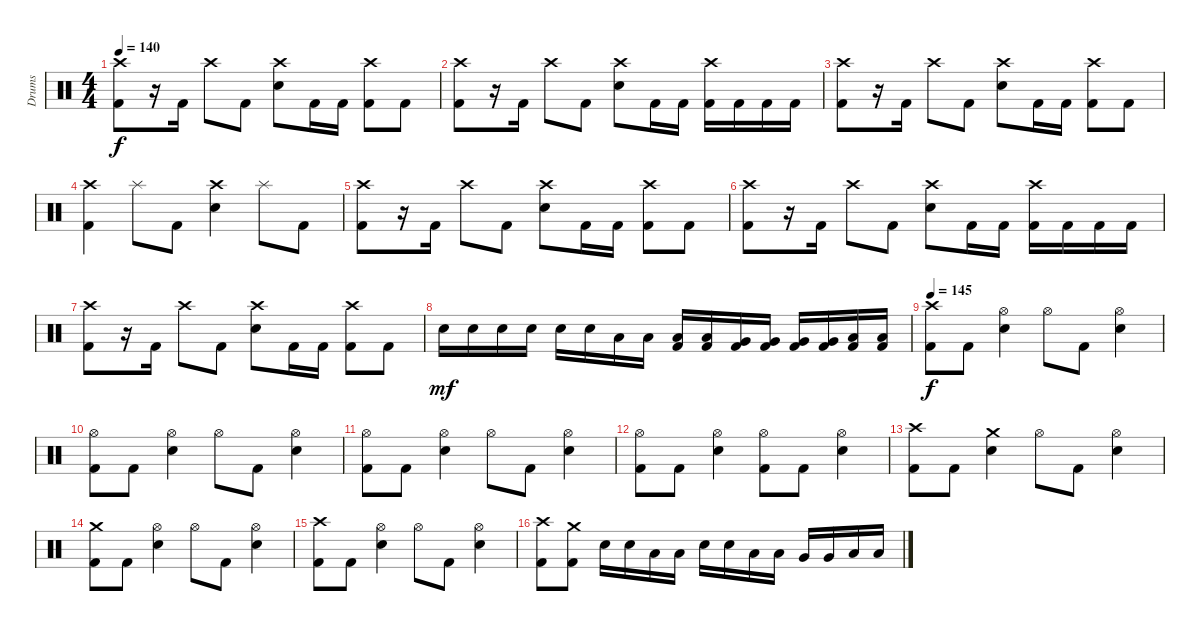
\track ("Drums" "Drums") {instrument percussion}
\staff {score}
\articulation defaults
\ts (4 4)
\tempo 140
\clef neutral
\ks c
("Crash high (hit)" "Kick (hit) 2").8{dy f} r.16 "Kick (hit) 2".16 "Crash high (hit)".8 "Kick (hit) 2".8 ("Crash high (hit)" "Electric Snare (hit)").8 "Kick (hit) 2".16 "Kick (hit) 2".16 ("Crash high (hit)" "Kick (hit) 2").8 "Kick (hit) 2".8 |
("Crash high (hit)" "Kick (hit) 2").8 r.16 "Kick (hit) 2".16 "Crash high (hit)".8 "Kick (hit) 2".8 ("Crash high (hit)" "Electric Snare (hit)").8 "Kick (hit) 2".16 "Kick (hit) 2".16 ("Crash high (hit)" "Kick (hit) 2").16 "Kick (hit) 2".16 "Kick (hit) 2".16 "Kick (hit) 2".16 |
("Crash high (hit)" "Kick (hit) 2").8 r.16 "Kick (hit) 2".16 "Crash high (hit)".8 "Kick (hit) 2".8 ("Crash high (hit)" "Electric Snare (hit)").8 "Kick (hit) 2".16 "Kick (hit) 2".16 ("Crash high (hit)" "Kick (hit) 2").8 "Kick (hit) 2".8 |
("Crash high (hit)" "Kick (hit) 2").4 "Splash (hit)".8 "Kick (hit) 2".8 ("Crash high (hit)" "Electric Snare (hit)").4 "Splash (hit)".8 "Kick (hit) 2".8 |
("Crash high (hit)" "Kick (hit) 2").8 r.16 "Kick (hit) 2".16 "Crash high (hit)".8 "Kick (hit) 2".8 ("Crash high (hit)" "Electric Snare (hit)").8 "Kick (hit) 2".16 "Kick (hit) 2".16 ("Crash high (hit)" "Kick (hit) 2").8 "Kick (hit) 2".8 |
("Crash high (hit)" "Kick (hit) 2").8 r.16 "Kick (hit) 2".16 "Crash high (hit)".8 "Kick (hit) 2".8 ("Crash high (hit)" "Electric Snare (hit)").8 "Kick (hit) 2".16 "Kick (hit) 2".16 ("Crash high (hit)" "Kick (hit) 2").16 "Kick (hit) 2".16 "Kick (hit) 2".16 "Kick (hit) 2".16 |
("Crash high (hit)" "Kick (hit) 2").8 r.16 "Kick (hit) 2".16 "Crash high (hit)".8 "Kick (hit) 2".8 ("Crash high (hit)" "Electric Snare (hit)").8 "Kick (hit) 2".16 "Kick (hit) 2".16 ("Crash high (hit)" "Kick (hit) 2").8 "Kick (hit) 2".8 |
"Electric Snare (hit)".16{dy mf} "Electric Snare (hit)".16 "Electric Snare (hit)".16 "Electric Snare (hit)".16 "Electric Snare (hit)".16 "Electric Snare (hit)".16 "Low Tom (hit)".16 "Low Tom (hit)".16 ("Low Tom (hit)" "Kick (hit) 2").16 ("Low Tom (hit)" "Kick (hit) 2").16 ("Very Low Tom (hit)" "Kick (hit) 2").16 ("Very Low Tom (hit)" "Kick (hit) 2").16 ("Very Low Tom (hit)" "Kick (hit) 2").16 ("Very Low Tom (hit)" "Kick (hit) 2").16 ("Low Floor Tom (hit)" "Kick (hit) 2").16 ("Low Floor Tom (hit)" "Kick (hit) 2").16 |
\tempo 145
("Crash high (hit)" "Kick (hit) 2").8{dy f} "Kick (hit) 2".8 ("Hi-Hat (open)" "Electric Snare (hit)").4 "Hi-Hat (open)".8 "Kick (hit) 2".8 ("Hi-Hat (open)" "Electric Snare (hit)").4 |
("Hi-Hat (open)" "Kick (hit) 2").8 "Kick (hit) 2".8 ("Hi-Hat (open)" "Electric Snare (hit)").4 "Hi-Hat (open)".8 "Kick (hit) 2".8 ("Hi-Hat (open)" "Electric Snare (hit)").4 |
("Hi-Hat (open)" "Kick (hit) 2").8 "Kick (hit) 2".8 ("Hi-Hat (open)" "Electric Snare (hit)").4 "Hi-Hat (open)".8 "Kick (hit) 2".8 ("Hi-Hat (open)" "Electric Snare (hit)").4 |
("Hi-Hat (open)" "Kick (hit) 2").8 "Kick (hit) 2".8 ("Hi-Hat (open)" "Electric Snare (hit)").4 ("Hi-Hat (open)" "Kick (hit) 2").8 "Kick (hit) 2".8 ("Hi-Hat (open)" "Electric Snare (hit)").4 |
("Crash high (hit)" "Kick (hit) 2").8 "Kick (hit) 2".8 ("Crash medium (hit)" "Electric Snare (hit)").4 "Hi-Hat (open)".8 "Kick (hit) 2".8 ("Hi-Hat (open)" "Electric Snare (hit)").4 |
("Crash medium (hit)" "Kick (hit) 2").8 "Kick (hit) 2".8 ("Hi-Hat (open)" "Electric Snare (hit)").4 "Hi-Hat (open)".8 "Kick (hit) 2".8 ("Hi-Hat (open)" "Electric Snare (hit)").4 |
("Crash high (hit)" "Kick (hit) 2").8 "Kick (hit) 2".8 ("Hi-Hat (open)" "Electric Snare (hit)").4 "Hi-Hat (open)".8 "Kick (hit) 2".8 ("Hi-Hat (open)" "Electric Snare (hit)").4 |
("Crash high (hit)" "Kick (hit) 2").8 ("Crash medium (hit)" "Kick (hit) 2").8 "Electric Snare (hit)".16 "Electric Snare (hit)".16 "Low Tom (hit)".16 "Low Tom (hit)".16 "Electric Snare (hit)".16 "Electric Snare (hit)".16 "Low Tom (hit)".16 "Low Tom (hit)".16 "Very Low Tom (hit)".16 "Very Low Tom (hit)".16 "Low Floor Tom (hit)".16 "Low Floor Tom (hit)".16
